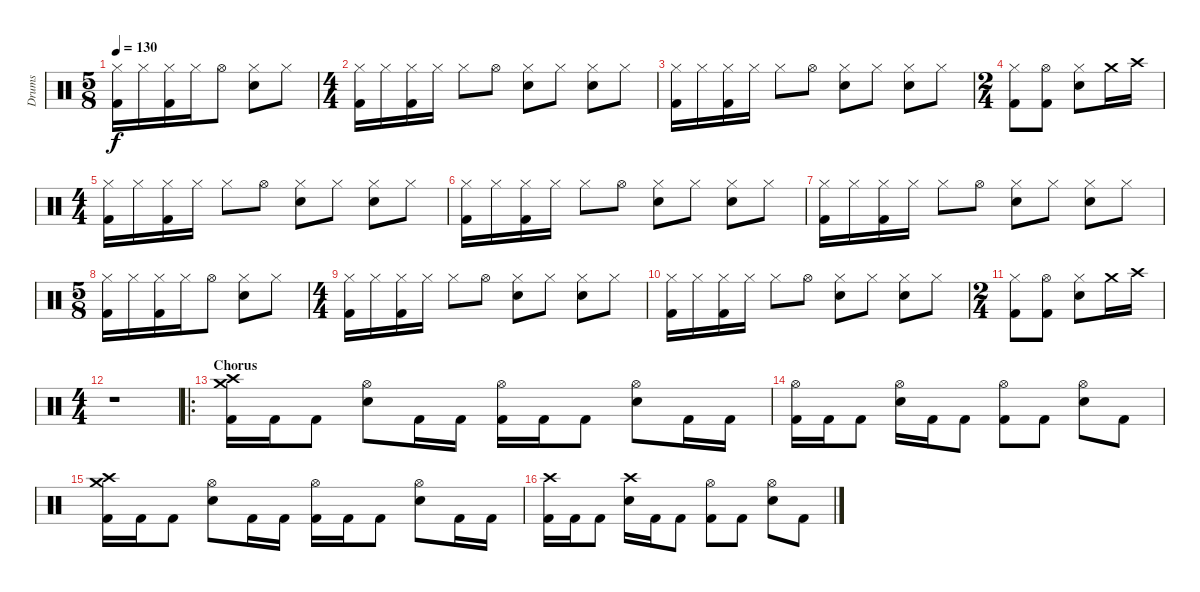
\track ("Drums" "Drums") {instrument percussion}
\staff {score}
\articulation defaults
\ts (5 8)
\tempo 130
\clef neutral
\ks c
("Hi-Hat (closed)" "Kick (hit) 2").16{dy f} "Hi-Hat (closed)".16 ("Hi-Hat (closed)" "Kick (hit) 2").16 "Hi-Hat (closed)".16 "Hi-Hat (open)".8 ("Hi-Hat (closed)" "Electric Snare (hit)").8 "Hi-Hat (closed)".8 |
\ts (4 4)
("Hi-Hat (closed)" "Kick (hit) 2").16 "Hi-Hat (closed)".16 ("Hi-Hat (closed)" "Kick (hit) 2").16 "Hi-Hat (closed)".16 "Hi-Hat (closed)".8 "Hi-Hat (open)".8 ("Hi-Hat (closed)" "Electric Snare (hit)").8 "Hi-Hat (closed)".8 ("Hi-Hat (closed)" "Electric Snare (hit)").8 "Hi-Hat (closed)".8 |
("Hi-Hat (closed)" "Kick (hit) 2").16 "Hi-Hat (closed)".16 ("Hi-Hat (closed)" "Kick (hit) 2").16 "Hi-Hat (closed)".16 "Hi-Hat (closed)".8 "Hi-Hat (open)".8 ("Hi-Hat (closed)" "Electric Snare (hit)").8 "Hi-Hat (closed)".8 ("Hi-Hat (closed)" "Electric Snare (hit)").8 "Hi-Hat (closed)".8 |
\ts (2 4)
("Hi-Hat (closed)" "Kick (hit) 2").8 ("Hi-Hat (open)" "Kick (hit) 2").8 ("Hi-Hat (closed)" "Electric Snare (hit)").8 "Crash medium (hit)".16 "Crash high (hit)".16 |
\ts (4 4)
("Hi-Hat (closed)" "Kick (hit) 2").16 "Hi-Hat (closed)".16 ("Hi-Hat (closed)" "Kick (hit) 2").16 "Hi-Hat (closed)".16 "Hi-Hat (closed)".8 "Hi-Hat (open)".8 ("Hi-Hat (closed)" "Electric Snare (hit)").8 "Hi-Hat (closed)".8 ("Hi-Hat (closed)" "Electric Snare (hit)").8 "Hi-Hat (closed)".8 |
("Hi-Hat (closed)" "Kick (hit) 2").16 "Hi-Hat (closed)".16 ("Hi-Hat (closed)" "Kick (hit) 2").16 "Hi-Hat (closed)".16 "Hi-Hat (closed)".8 "Hi-Hat (open)".8 ("Hi-Hat (closed)" "Electric Snare (hit)").8 "Hi-Hat (closed)".8 ("Hi-Hat (closed)" "Electric Snare (hit)").8 "Hi-Hat (closed)".8 |
("Hi-Hat (closed)" "Kick (hit) 2").16 "Hi-Hat (closed)".16 ("Hi-Hat (closed)" "Kick (hit) 2").16 "Hi-Hat (closed)".16 "Hi-Hat (closed)".8 "Hi-Hat (open)".8 ("Hi-Hat (closed)" "Electric Snare (hit)").8 "Hi-Hat (closed)".8 ("Hi-Hat (closed)" "Electric Snare (hit)").8 "Hi-Hat (closed)".8 |
\ts (5 8)
("Hi-Hat (closed)" "Kick (hit) 2").16 "Hi-Hat (closed)".16 ("Hi-Hat (closed)" "Kick (hit) 2").16 "Hi-Hat (closed)".16 "Hi-Hat (open)".8 ("Hi-Hat (closed)" "Electric Snare (hit)").8 "Hi-Hat (closed)".8 |
\ts (4 4)
("Hi-Hat (closed)" "Kick (hit) 2").16 "Hi-Hat (closed)".16 ("Hi-Hat (closed)" "Kick (hit) 2").16 "Hi-Hat (closed)".16 "Hi-Hat (closed)".8 "Hi-Hat (open)".8 ("Hi-Hat (closed)" "Electric Snare (hit)").8 "Hi-Hat (closed)".8 ("Hi-Hat (closed)" "Electric Snare (hit)").8 "Hi-Hat (closed)".8 |
("Hi-Hat (closed)" "Kick (hit) 2").16 "Hi-Hat (closed)".16 ("Hi-Hat (closed)" "Kick (hit) 2").16 "Hi-Hat (closed)".16 "Hi-Hat (closed)".8 "Hi-Hat (open)".8 ("Hi-Hat (closed)" "Electric Snare (hit)").8 "Hi-Hat (closed)".8 ("Hi-Hat (closed)" "Electric Snare (hit)").8 "Hi-Hat (closed)".8 |
\ts (2 4)
("Hi-Hat (closed)" "Kick (hit) 2").8 ("Hi-Hat (open)" "Kick (hit) 2").8 ("Hi-Hat (closed)" "Electric Snare (hit)").8 "Crash medium (hit)".16 "Crash high (hit)".16 |
\ts (4 4)
r.1 |
\ro
\section ("" "Chorus")
("Crash high (hit)" "Crash medium (hit)" "Kick (hit) 2").16 "Kick (hit) 2".16 "Kick (hit) 2".8 ("Hi-Hat (open)" "Electric Snare (hit)").8 "Kick (hit) 2".16 "Kick (hit) 2".16 ("Hi-Hat (open)" "Kick (hit) 2").16 "Kick (hit) 2".16 "Kick (hit) 2".8 ("Hi-Hat (open)" "Electric Snare (hit)").8 "Kick (hit) 2".16 "Kick (hit) 2".16 |
("Hi-Hat (open)" "Kick (hit) 2").16 "Kick (hit) 2".16 "Kick (hit) 2".8 ("Hi-Hat (open)" "Electric Snare (hit)").16 "Kick (hit) 2".16 "Kick (hit) 2".8 ("Hi-Hat (open)" "Kick (hit) 2").8 "Kick (hit) 2".8 ("Hi-Hat (open)" "Electric Snare (hit)").8 "Kick (hit) 2".8 |
("Crash high (hit)" "Crash medium (hit)" "Kick (hit) 2").16 "Kick (hit) 2".16 "Kick (hit) 2".8 ("Hi-Hat (open)" "Electric Snare (hit)").8 "Kick (hit) 2".16 "Kick (hit) 2".16 ("Hi-Hat (open)" "Kick (hit) 2").16 "Kick (hit) 2".16 "Kick (hit) 2".8 ("Hi-Hat (open)" "Electric Snare (hit)").8 "Kick (hit) 2".16 "Kick (hit) 2".16 |
("Crash high (hit)" "Kick (hit) 2").16 "Kick (hit) 2".16 "Kick (hit) 2".8 ("Crash high (hit)" "Electric Snare (hit)").16 "Kick (hit) 2".16 "Kick (hit) 2".8 ("Hi-Hat (open)" "Kick (hit) 2").8 "Kick (hit) 2".8 ("Hi-Hat (open)" "Electric Snare (hit)").8 "Kick (hit) 2".8
